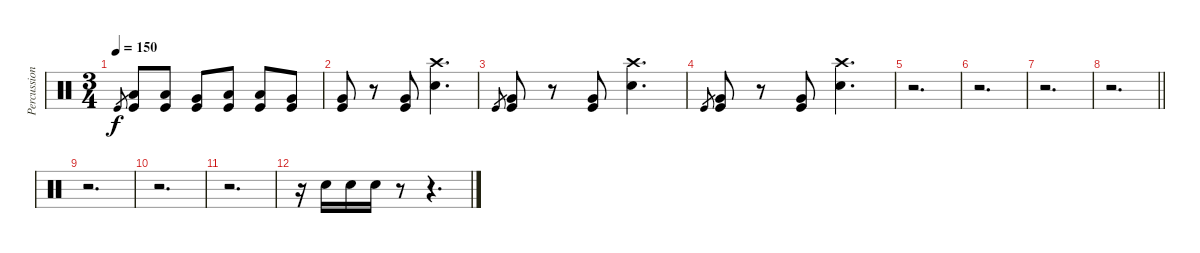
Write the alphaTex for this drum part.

\track ("Percussion" "Percussion") {instrument percussion}
\staff {score}
\articulation defaults
\ts (3 4)
\tempo 150
\clef neutral
\ks c "Kick (hit)".8{gr dy f}
("Low Tom (hit)" "Kick (hit)").8 ("Low Tom (hit)" "Kick (hit)").8 ("Very Low Tom (hit)" "Kick (hit)").8 ("Low Tom (hit)" "Kick (hit)").8 ("Low Tom (hit)" "Kick (hit)").8 ("Very Low Tom (hit)" "Kick (hit)").8 |
("Very Low Tom (hit)" "Kick (hit)").8 r.8 ("Very Low Tom (hit)" "Kick (hit)").8 ("Crash high (hit)" "Snare (hit) 2").4{d} |
"Kick (hit)".8{gr} ("Very Low Tom (hit)" "Kick (hit)").8 r.8 ("Very Low Tom (hit)" "Kick (hit)").8 ("Crash high (hit)" "Snare (hit) 2").4{d} |
"Kick (hit)".8{gr} ("Very Low Tom (hit)" "Kick (hit)").8 r.8 ("Very Low Tom (hit)" "Kick (hit)").8 ("Crash high (hit)" "Snare (hit) 2").4{d} |
r.2{d} |
r.2{d} |
r.2{d} |
\barLineRight lightlight
r.2{d} |
r.2{d} |
r.2{d} |
r.2{d} |
r.16{volume 13} "Snare (hit) 2".16 "Snare (hit) 2".16 "Snare (hit) 2".16 r.8 r.4{d}
